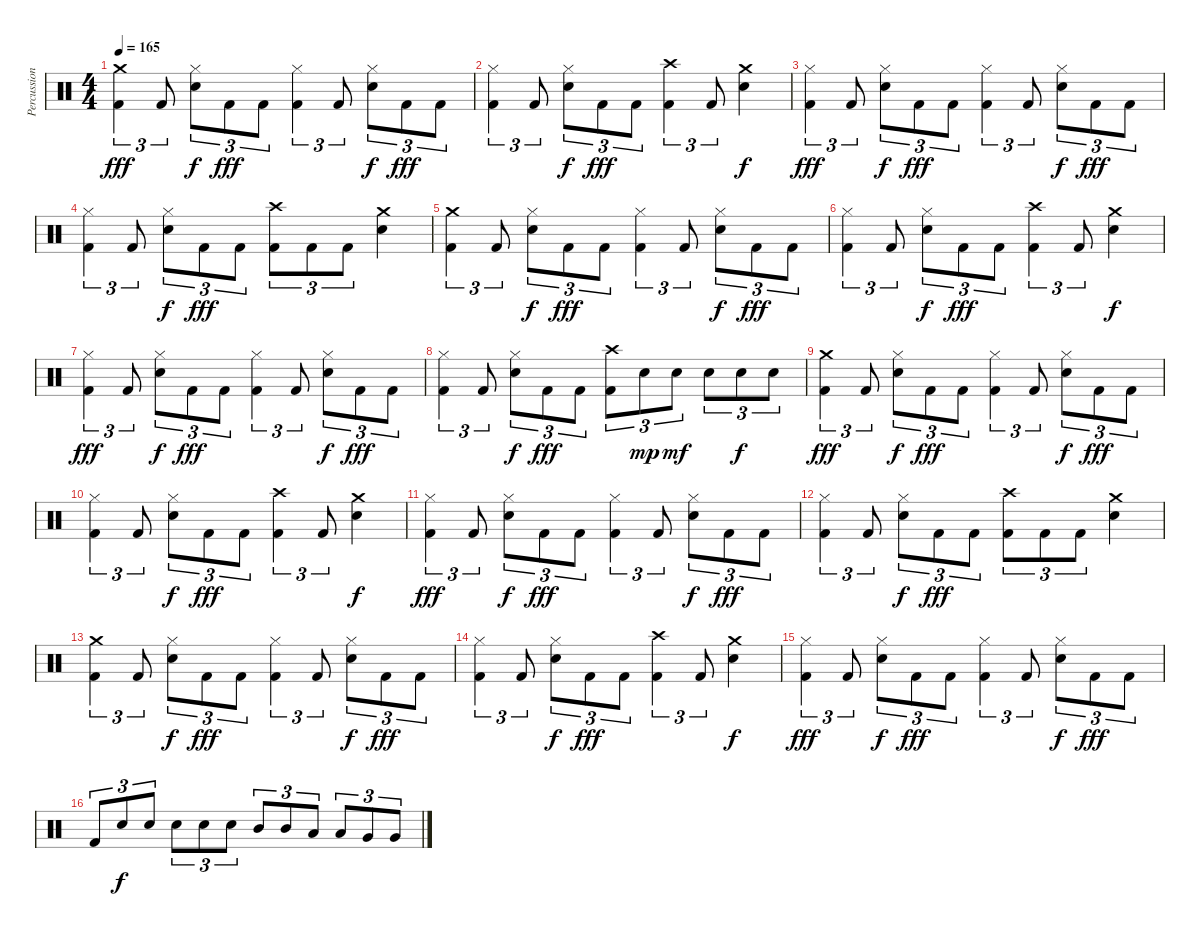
\track ("Percussion" "Percussion") {instrument percussion}
\staff {score}
\articulation defaults
\ts (4 4)
\tempo 165
\clef neutral
\ks c
("Crash medium (hit)" "Kick (hit) 2").4{tu (3 2) dy fff} "Kick (hit) 2".8{tu (3 2)} ("Hi-Hat (closed)" "Electric Snare (hit)").8{tu (3 2) dy f} "Kick (hit) 2".8{tu (3 2) dy fff} "Kick (hit) 2".8{tu (3 2)} ("Hi-Hat (closed)" "Kick (hit) 2").4{tu (3 2)} "Kick (hit) 2".8{tu (3 2)} ("Hi-Hat (closed)" "Electric Snare (hit)").8{tu (3 2) dy f} "Kick (hit) 2".8{tu (3 2) dy fff} "Kick (hit) 2".8{tu (3 2)} |
("Hi-Hat (closed)" "Kick (hit) 2").4{tu (3 2)} "Kick (hit) 2".8{tu (3 2)} ("Hi-Hat (closed)" "Electric Snare (hit)").8{tu (3 2) dy f} "Kick (hit) 2".8{tu (3 2) dy fff} "Kick (hit) 2".8{tu (3 2)} ("Crash high (hit)" "Kick (hit) 2").4{tu (3 2)} "Kick (hit) 2".8{tu (3 2)} ("Crash medium (hit)" "Electric Snare (hit)").4{dy f} |
("Hi-Hat (closed)" "Kick (hit) 2").4{tu (3 2) dy fff} "Kick (hit) 2".8{tu (3 2)} ("Hi-Hat (closed)" "Electric Snare (hit)").8{tu (3 2) dy f} "Kick (hit) 2".8{tu (3 2) dy fff} "Kick (hit) 2".8{tu (3 2)} ("Hi-Hat (closed)" "Kick (hit) 2").4{tu (3 2)} "Kick (hit) 2".8{tu (3 2)} ("Hi-Hat (closed)" "Electric Snare (hit)").8{tu (3 2) dy f} "Kick (hit) 2".8{tu (3 2) dy fff} "Kick (hit) 2".8{tu (3 2)} |
("Hi-Hat (closed)" "Kick (hit) 2").4{tu (3 2)} "Kick (hit) 2".8{tu (3 2)} ("Hi-Hat (closed)" "Electric Snare (hit)").8{tu (3 2) dy f} "Kick (hit) 2".8{tu (3 2) dy fff} "Kick (hit) 2".8{tu (3 2)} ("Crash high (hit)" "Kick (hit) 2").8{tu (3 2)} "Kick (hit) 2".8{tu (3 2)} "Kick (hit) 2".8{tu (3 2)} ("Crash medium (hit)" "Electric Snare (hit)").4 |
("Crash medium (hit)" "Kick (hit) 2").4{tu (3 2)} "Kick (hit) 2".8{tu (3 2)} ("Hi-Hat (closed)" "Electric Snare (hit)").8{tu (3 2) dy f} "Kick (hit) 2".8{tu (3 2) dy fff} "Kick (hit) 2".8{tu (3 2)} ("Hi-Hat (closed)" "Kick (hit) 2").4{tu (3 2)} "Kick (hit) 2".8{tu (3 2)} ("Hi-Hat (closed)" "Electric Snare (hit)").8{tu (3 2) dy f} "Kick (hit) 2".8{tu (3 2) dy fff} "Kick (hit) 2".8{tu (3 2)} |
("Hi-Hat (closed)" "Kick (hit) 2").4{tu (3 2)} "Kick (hit) 2".8{tu (3 2)} ("Hi-Hat (closed)" "Electric Snare (hit)").8{tu (3 2) dy f} "Kick (hit) 2".8{tu (3 2) dy fff} "Kick (hit) 2".8{tu (3 2)} ("Crash high (hit)" "Kick (hit) 2").4{tu (3 2)} "Kick (hit) 2".8{tu (3 2)} ("Crash medium (hit)" "Electric Snare (hit)").4{dy f} |
("Hi-Hat (closed)" "Kick (hit) 2").4{tu (3 2) dy fff} "Kick (hit) 2".8{tu (3 2)} ("Hi-Hat (closed)" "Electric Snare (hit)").8{tu (3 2) dy f} "Kick (hit) 2".8{tu (3 2) dy fff} "Kick (hit) 2".8{tu (3 2)} ("Hi-Hat (closed)" "Kick (hit) 2").4{tu (3 2)} "Kick (hit) 2".8{tu (3 2)} ("Hi-Hat (closed)" "Electric Snare (hit)").8{tu (3 2) dy f} "Kick (hit) 2".8{tu (3 2) dy fff} "Kick (hit) 2".8{tu (3 2)} |
("Hi-Hat (closed)" "Kick (hit) 2").4{tu (3 2)} "Kick (hit) 2".8{tu (3 2)} ("Hi-Hat (closed)" "Electric Snare (hit)").8{tu (3 2) dy f} "Kick (hit) 2".8{tu (3 2) dy fff} "Kick (hit) 2".8{tu (3 2)} ("Crash high (hit)" "Kick (hit) 2").8{tu (3 2)} "Electric Snare (hit)".8{tu (3 2) dy mp} "Electric Snare (hit)".8{tu (3 2) dy mf} "Electric Snare (hit)".8{tu (3 2)} "Electric Snare (hit)".8{tu (3 2) dy f} "Electric Snare (hit)".8{tu (3 2)} |
("Crash medium (hit)" "Kick (hit) 2").4{tu (3 2) dy fff} "Kick (hit) 2".8{tu (3 2)} ("Hi-Hat (closed)" "Electric Snare (hit)").8{tu (3 2) dy f} "Kick (hit) 2".8{tu (3 2) dy fff} "Kick (hit) 2".8{tu (3 2)} ("Hi-Hat (closed)" "Kick (hit) 2").4{tu (3 2)} "Kick (hit) 2".8{tu (3 2)} ("Hi-Hat (closed)" "Electric Snare (hit)").8{tu (3 2) dy f} "Kick (hit) 2".8{tu (3 2) dy fff} "Kick (hit) 2".8{tu (3 2)} |
("Hi-Hat (closed)" "Kick (hit) 2").4{tu (3 2)} "Kick (hit) 2".8{tu (3 2)} ("Hi-Hat (closed)" "Electric Snare (hit)").8{tu (3 2) dy f} "Kick (hit) 2".8{tu (3 2) dy fff} "Kick (hit) 2".8{tu (3 2)} ("Crash high (hit)" "Kick (hit) 2").4{tu (3 2)} "Kick (hit) 2".8{tu (3 2)} ("Crash medium (hit)" "Electric Snare (hit)").4{dy f} |
("Hi-Hat (closed)" "Kick (hit) 2").4{tu (3 2) dy fff} "Kick (hit) 2".8{tu (3 2)} ("Hi-Hat (closed)" "Electric Snare (hit)").8{tu (3 2) dy f} "Kick (hit) 2".8{tu (3 2) dy fff} "Kick (hit) 2".8{tu (3 2)} ("Hi-Hat (closed)" "Kick (hit) 2").4{tu (3 2)} "Kick (hit) 2".8{tu (3 2)} ("Hi-Hat (closed)" "Electric Snare (hit)").8{tu (3 2) dy f} "Kick (hit) 2".8{tu (3 2) dy fff} "Kick (hit) 2".8{tu (3 2)} |
("Hi-Hat (closed)" "Kick (hit) 2").4{tu (3 2)} "Kick (hit) 2".8{tu (3 2)} ("Hi-Hat (closed)" "Electric Snare (hit)").8{tu (3 2) dy f} "Kick (hit) 2".8{tu (3 2) dy fff} "Kick (hit) 2".8{tu (3 2)} ("Crash high (hit)" "Kick (hit) 2").8{tu (3 2)} "Kick (hit) 2".8{tu (3 2)} "Kick (hit) 2".8{tu (3 2)} ("Crash medium (hit)" "Electric Snare (hit)").4 |
("Crash medium (hit)" "Kick (hit) 2").4{tu (3 2)} "Kick (hit) 2".8{tu (3 2)} ("Hi-Hat (closed)" "Electric Snare (hit)").8{tu (3 2) dy f} "Kick (hit) 2".8{tu (3 2) dy fff} "Kick (hit) 2".8{tu (3 2)} ("Hi-Hat (closed)" "Kick (hit) 2").4{tu (3 2)} "Kick (hit) 2".8{tu (3 2)} ("Hi-Hat (closed)" "Electric Snare (hit)").8{tu (3 2) dy f} "Kick (hit) 2".8{tu (3 2) dy fff} "Kick (hit) 2".8{tu (3 2)} |
("Hi-Hat (closed)" "Kick (hit) 2").4{tu (3 2)} "Kick (hit) 2".8{tu (3 2)} ("Hi-Hat (closed)" "Electric Snare (hit)").8{tu (3 2) dy f} "Kick (hit) 2".8{tu (3 2) dy fff} "Kick (hit) 2".8{tu (3 2)} ("Crash high (hit)" "Kick (hit) 2").4{tu (3 2)} "Kick (hit) 2".8{tu (3 2)} ("Crash medium (hit)" "Electric Snare (hit)").4{dy f} |
("Hi-Hat (closed)" "Kick (hit) 2").4{tu (3 2) dy fff} "Kick (hit) 2".8{tu (3 2)} ("Hi-Hat (closed)" "Electric Snare (hit)").8{tu (3 2) dy f} "Kick (hit) 2".8{tu (3 2) dy fff} "Kick (hit) 2".8{tu (3 2)} ("Hi-Hat (closed)" "Kick (hit) 2").4{tu (3 2)} "Kick (hit) 2".8{tu (3 2)} ("Hi-Hat (closed)" "Electric Snare (hit)").8{tu (3 2) dy f} "Kick (hit) 2".8{tu (3 2) dy fff} "Kick (hit) 2".8{tu (3 2)} |
"Kick (hit) 2".8{tu (3 2)} "Electric Snare (hit)".8{tu (3 2) dy f} "Electric Snare (hit)".8{tu (3 2)} "Electric Snare (hit)".8{tu (3 2)} "Electric Snare (hit)".8{tu (3 2)} "Electric Snare (hit)".8{tu (3 2)} "Mid Tom (hit)".8{tu (3 2)} "Mid Tom (hit)".8{tu (3 2)} "Low Tom (hit)".8{tu (3 2)} "Low Tom (hit)".8{tu (3 2)} "Very Low Tom (hit)".8{tu (3 2)} "Very Low Tom (hit)".8{tu (3 2)}
